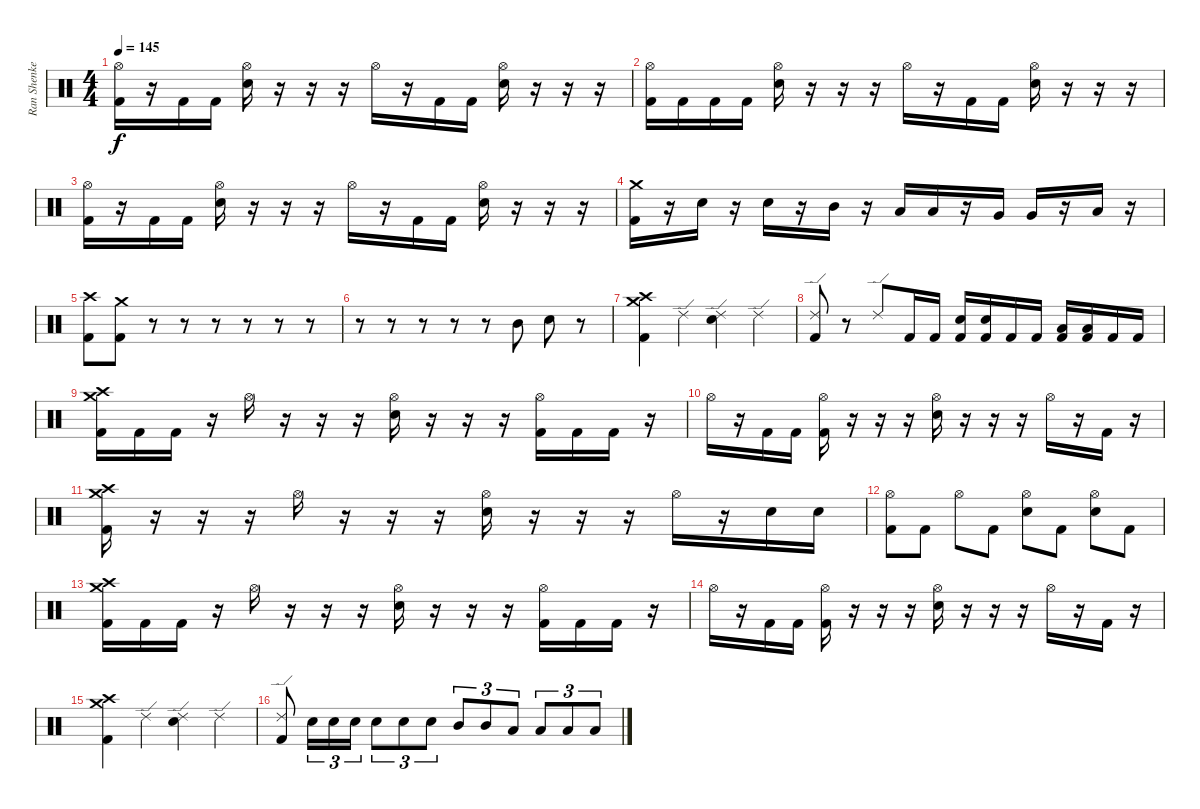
\track ("Ran Shenkerman" "Ran Shenke") {instrument percussion}
\staff {score}
\articulation defaults
\ts (4 4)
\tempo 145
\clef neutral
\ks c
("Hi-Hat (open)" "Kick (hit) 2").16{dy f} r.16 "Kick (hit) 2".16 "Kick (hit) 2".16 ("Hi-Hat (open)" "Snare (hit) 2").16 r.16 r.16 r.16 "Hi-Hat (open)".16 r.16 "Kick (hit) 2".16 "Kick (hit) 2".16 ("Hi-Hat (open)" "Snare (hit) 2").16 r.16 r.16 r.16 |
("Hi-Hat (open)" "Kick (hit) 2").16 "Kick (hit) 2".16 "Kick (hit) 2".16 "Kick (hit) 2".16 ("Hi-Hat (open)" "Snare (hit) 2").16 r.16 r.16 r.16 "Hi-Hat (open)".16 r.16 "Kick (hit) 2".16 "Kick (hit) 2".16 ("Hi-Hat (open)" "Snare (hit) 2").16 r.16 r.16 r.16 |
("Hi-Hat (open)" "Kick (hit) 2").16 r.16 "Kick (hit) 2".16 "Kick (hit) 2".16 ("Hi-Hat (open)" "Snare (hit) 2").16 r.16 r.16 r.16 "Hi-Hat (open)".16 r.16 "Kick (hit) 2".16 "Kick (hit) 2".16 ("Hi-Hat (open)" "Snare (hit) 2").16 r.16 r.16 r.16 |
("Crash medium (hit)" "Kick (hit) 2").16 r.16 "Snare (hit) 2".16 r.16 "Snare (hit) 2".16 r.16 "Mid Tom (hit)".16 r.16 "Low Tom (hit)".16 "Low Tom (hit)".16 r.16 "Very Low Tom (hit)".16 "Very Low Tom (hit)".16 r.16 "Low Floor Tom (hit)".16 r.16 |
("Crash high (hit)" "Kick (hit) 2").8 ("Crash medium (hit)" "Kick (hit) 2").8 r.8 r.8 r.8 r.8 r.8 r.8 |
r.8 r.8 r.8 r.8 r.8 "Mid Tom (hit)".8 "Snare (hit) 2".8 r.8 |
("Crash high (hit)" "Crash medium (hit)" "Kick (hit) 2").4 "Ride (edge) 2".4 ("Ride (edge) 2" "Snare (hit) 2").4 "Ride (edge) 2".4 |
("Ride (edge) 2" "Kick (hit) 2").8 r.8 "Ride (edge) 2".8 "Kick (hit) 2".16 "Kick (hit) 2".16 ("Snare (hit) 2" "Kick (hit) 2").16 ("Snare (hit) 2" "Kick (hit) 2").16 "Kick (hit) 2".16 "Kick (hit) 2".16 ("Low Floor Tom (hit)" "Kick (hit) 2").16 ("Low Floor Tom (hit)" "Kick (hit) 2").16 "Kick (hit) 2".16 "Kick (hit) 2".16 |
("Crash high (hit)" "Crash medium (hit)" "Kick (hit) 2").16 "Kick (hit) 2".16 "Kick (hit) 2".16 r.16 "Hi-Hat (open)".16 r.16 r.16 r.16 ("Hi-Hat (open)" "Snare (hit) 2").16 r.16 r.16 r.16 ("Hi-Hat (open)" "Kick (hit) 2").16 "Kick (hit) 2".16 "Kick (hit) 2".16 r.16 |
"Hi-Hat (open)".16 r.16 "Kick (hit) 2".16 "Kick (hit) 2".16 ("Hi-Hat (open)" "Kick (hit) 2").16 r.16 r.16 r.16 ("Hi-Hat (open)" "Snare (hit) 2").16 r.16 r.16 r.16 "Hi-Hat (open)".16 r.16 "Kick (hit) 2".16 r.16 |
("Crash medium (hit)" "Crash high (hit)" "Kick (hit) 2").16 r.16 r.16 r.16 "Hi-Hat (open)".16 r.16 r.16 r.16 ("Hi-Hat (open)" "Snare (hit) 2").16 r.16 r.16 r.16 "Hi-Hat (open)".16 r.16 "Snare (hit) 2".16 "Snare (hit) 2".16 |
("Hi-Hat (open)" "Kick (hit) 2").8 "Kick (hit) 2".8 "Hi-Hat (open)".8 "Kick (hit) 2".8 ("Hi-Hat (open)" "Snare (hit) 2").8 "Kick (hit) 2".8 ("Hi-Hat (open)" "Snare (hit) 2").8 "Kick (hit) 2".8 |
("Crash high (hit)" "Crash medium (hit)" "Kick (hit) 2").16 "Kick (hit) 2".16 "Kick (hit) 2".16 r.16 "Hi-Hat (open)".16 r.16 r.16 r.16 ("Hi-Hat (open)" "Snare (hit) 2").16 r.16 r.16 r.16 ("Hi-Hat (open)" "Kick (hit) 2").16 "Kick (hit) 2".16 "Kick (hit) 2".16 r.16 |
"Hi-Hat (open)".16 r.16 "Kick (hit) 2".16 "Kick (hit) 2".16 ("Hi-Hat (open)" "Kick (hit) 2").16 r.16 r.16 r.16 ("Hi-Hat (open)" "Snare (hit) 2").16 r.16 r.16 r.16 "Hi-Hat (open)".16 r.16 "Kick (hit) 2".16 r.16 |
("Crash high (hit)" "Crash medium (hit)" "Kick (hit) 2").4 "Ride (edge) 2".4 ("Ride (edge) 2" "Snare (hit) 2").4 "Ride (edge) 2".4 |
("Ride (edge) 2" "Kick (hit) 2").8 "Snare (hit) 2".16{tu (3 2)} "Snare (hit) 2".16{tu (3 2)} "Snare (hit) 2".16{tu (3 2)} "Snare (hit) 2".8{tu (3 2)} "Snare (hit) 2".8{tu (3 2)} "Snare (hit) 2".8{tu (3 2)} "Mid Tom (hit)".8{tu (3 2)} "Mid Tom (hit)".8{tu (3 2)} "Low Tom (hit)".8{tu (3 2)} "Low Tom (hit)".8{tu (3 2)} "Low Floor Tom (hit)".8{tu (3 2)} "Low Floor Tom (hit)".8{tu (3 2)}
